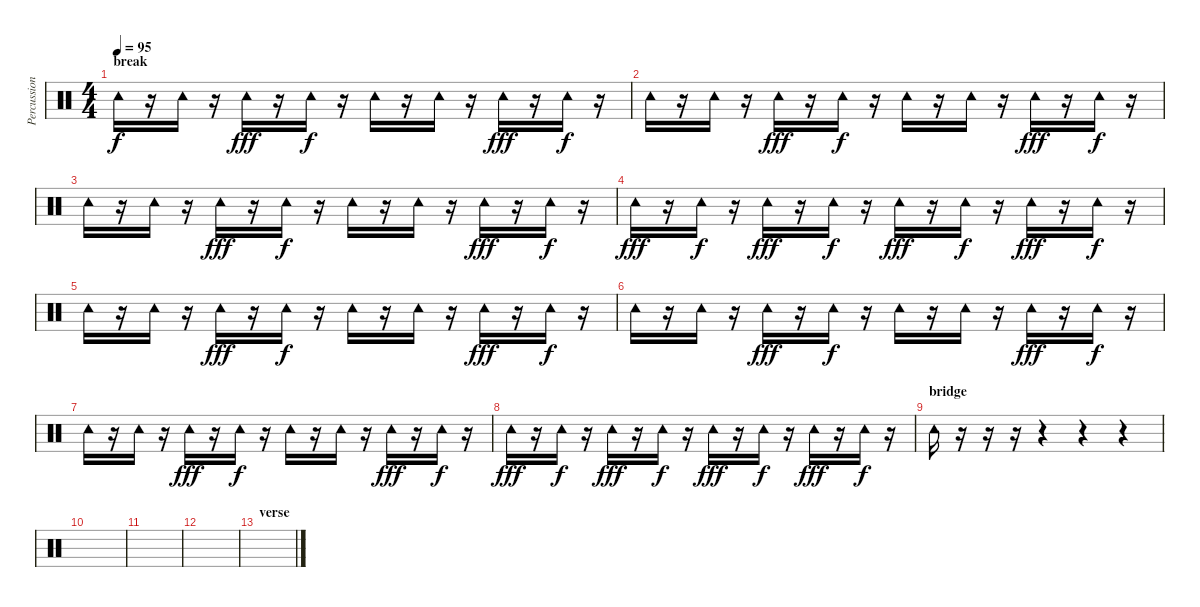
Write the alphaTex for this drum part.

\track ("Percussion" "Percussion") {instrument percussion}
\staff {score}
\articulation defaults
\ts (4 4)
\section ("" "break")
\tempo 95
\clef neutral
\ks c "Tambourine (hit)".16{dy f}
r.16 "Tambourine (hit)".16 r.16 "Tambourine (hit)".16{dy fff} r.16 "Tambourine (hit)".16{dy f} r.16 "Tambourine (hit)".16 r.16 "Tambourine (hit)".16 r.16 "Tambourine (hit)".16{dy fff} r.16 "Tambourine (hit)".16{dy f} r.16 |
"Tambourine (hit)".16 r.16 "Tambourine (hit)".16 r.16 "Tambourine (hit)".16{dy fff} r.16 "Tambourine (hit)".16{dy f} r.16 "Tambourine (hit)".16 r.16 "Tambourine (hit)".16 r.16 "Tambourine (hit)".16{dy fff} r.16 "Tambourine (hit)".16{dy f} r.16 |
"Tambourine (hit)".16 r.16 "Tambourine (hit)".16 r.16 "Tambourine (hit)".16{dy fff} r.16 "Tambourine (hit)".16{dy f} r.16 "Tambourine (hit)".16 r.16 "Tambourine (hit)".16 r.16 "Tambourine (hit)".16{dy fff} r.16 "Tambourine (hit)".16{dy f} r.16 |
"Tambourine (hit)".16{dy fff} r.16 "Tambourine (hit)".16{dy f} r.16 "Tambourine (hit)".16{dy fff} r.16 "Tambourine (hit)".16{dy f} r.16 "Tambourine (hit)".16{dy fff} r.16 "Tambourine (hit)".16{dy f} r.16 "Tambourine (hit)".16{dy fff} r.16 "Tambourine (hit)".16{dy f} r.16 |
"Tambourine (hit)".16 r.16 "Tambourine (hit)".16 r.16 "Tambourine (hit)".16{dy fff} r.16 "Tambourine (hit)".16{dy f} r.16 "Tambourine (hit)".16 r.16 "Tambourine (hit)".16 r.16 "Tambourine (hit)".16{dy fff} r.16 "Tambourine (hit)".16{dy f} r.16 |
"Tambourine (hit)".16 r.16 "Tambourine (hit)".16 r.16 "Tambourine (hit)".16{dy fff} r.16 "Tambourine (hit)".16{dy f} r.16 "Tambourine (hit)".16 r.16 "Tambourine (hit)".16 r.16 "Tambourine (hit)".16{dy fff} r.16 "Tambourine (hit)".16{dy f} r.16 |
"Tambourine (hit)".16 r.16 "Tambourine (hit)".16 r.16 "Tambourine (hit)".16{dy fff} r.16 "Tambourine (hit)".16{dy f} r.16 "Tambourine (hit)".16 r.16 "Tambourine (hit)".16 r.16 "Tambourine (hit)".16{dy fff} r.16 "Tambourine (hit)".16{dy f} r.16 |
"Tambourine (hit)".16{dy fff} r.16 "Tambourine (hit)".16{dy f} r.16 "Tambourine (hit)".16{dy fff} r.16 "Tambourine (hit)".16{dy f} r.16 "Tambourine (hit)".16{dy fff} r.16 "Tambourine (hit)".16{dy f} r.16 "Tambourine (hit)".16{dy fff} r.16 "Tambourine (hit)".16{dy f} r.16 |
\section ("" "bridge")
"Tambourine (hit)".16 r.16 r.16 r.16 r.4 r.4 r.4 |
|
|
|
\section ("" "verse")
